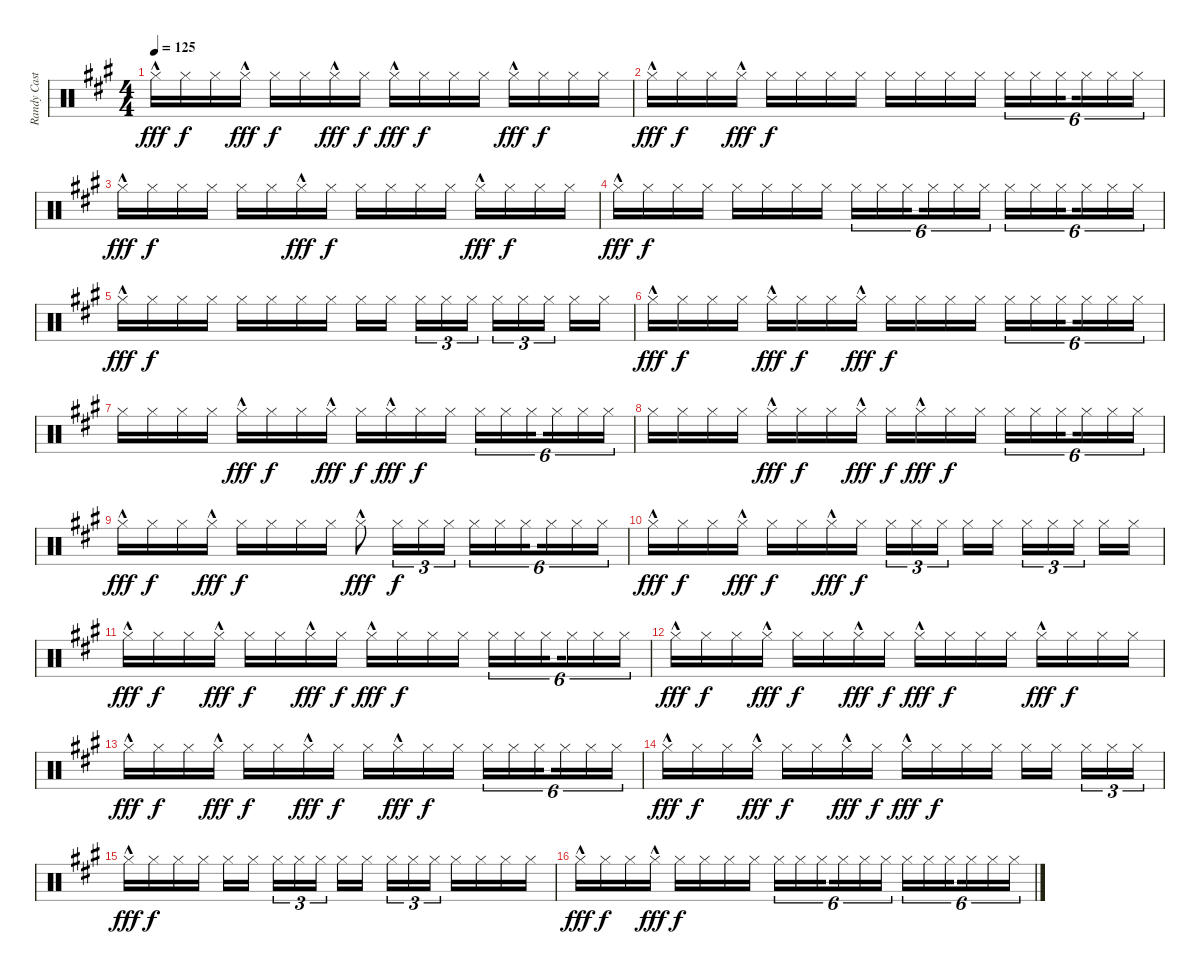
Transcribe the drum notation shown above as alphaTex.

\track ("Randy Castillo - Drums" "Randy Cast") {instrument percussion}
\staff {score}
\articulation defaults
\ts (4 4)
\tempo 125
\clef neutral
\ks a "Hi-Hat (closed)"{hac}.16{dy fff} "Hi-Hat (closed)".16{dy f} "Hi-Hat (closed)".16 "Hi-Hat (closed)"{hac}.16{dy fff} "Hi-Hat (closed)".16{dy f} "Hi-Hat (closed)".16 "Hi-Hat (closed)"{hac}.16{dy fff} "Hi-Hat (closed)".16{dy f} "Hi-Hat (closed)"{hac}.16{dy fff} "Hi-Hat (closed)".16{dy f} "Hi-Hat (closed)".16 "Hi-Hat (closed)".16 "Hi-Hat (closed)"{hac}.16{dy fff} "Hi-Hat (closed)".16{dy f} "Hi-Hat (closed)".16 "Hi-Hat (closed)".16
|
"Hi-Hat (closed)"{hac}.16{dy fff} "Hi-Hat (closed)".16{dy f} "Hi-Hat (closed)".16 "Hi-Hat (closed)"{hac}.16{dy fff} "Hi-Hat (closed)".16{dy f} "Hi-Hat (closed)".16 "Hi-Hat (closed)".16 "Hi-Hat (closed)".16 "Hi-Hat (closed)".16 "Hi-Hat (closed)".16 "Hi-Hat (closed)".16 "Hi-Hat (closed)".16 "Hi-Hat (closed)".16{tu (6 4)} "Hi-Hat (closed)".16{tu (6 4)} "Hi-Hat (closed)".16{tu (6 4) beam splitsecondary} "Hi-Hat (closed)".16{tu (6 4)} "Hi-Hat (closed)".16{tu (6 4)} "Hi-Hat (closed)".16{tu (6 4)} |
"Hi-Hat (closed)"{hac}.16{dy fff} "Hi-Hat (closed)".16{dy f} "Hi-Hat (closed)".16 "Hi-Hat (closed)".16 "Hi-Hat (closed)".16 "Hi-Hat (closed)".16 "Hi-Hat (closed)"{hac}.16{dy fff} "Hi-Hat (closed)".16{dy f} "Hi-Hat (closed)".16 "Hi-Hat (closed)".16 "Hi-Hat (closed)".16 "Hi-Hat (closed)".16 "Hi-Hat (closed)"{hac}.16{dy fff} "Hi-Hat (closed)".16{dy f} "Hi-Hat (closed)".16 "Hi-Hat (closed)".16 |
"Hi-Hat (closed)"{hac}.16{dy fff} "Hi-Hat (closed)".16{dy f} "Hi-Hat (closed)".16 "Hi-Hat (closed)".16 "Hi-Hat (closed)".16 "Hi-Hat (closed)".16 "Hi-Hat (closed)".16 "Hi-Hat (closed)".16 "Hi-Hat (closed)".16{tu (6 4)} "Hi-Hat (closed)".16{tu (6 4)} "Hi-Hat (closed)".16{tu (6 4) beam splitsecondary} "Hi-Hat (closed)".16{tu (6 4)} "Hi-Hat (closed)".16{tu (6 4)} "Hi-Hat (closed)".16{tu (6 4)} "Hi-Hat (closed)".16{tu (6 4)} "Hi-Hat (closed)".16{tu (6 4)} "Hi-Hat (closed)".16{tu (6 4) beam splitsecondary} "Hi-Hat (closed)".16{tu (6 4)} "Hi-Hat (closed)".16{tu (6 4)} "Hi-Hat (closed)".16{tu (6 4)} |
"Hi-Hat (closed)"{hac}.16{dy fff} "Hi-Hat (closed)".16{dy f} "Hi-Hat (closed)".16 "Hi-Hat (closed)".16 "Hi-Hat (closed)".16 "Hi-Hat (closed)".16 "Hi-Hat (closed)".16 "Hi-Hat (closed)".16 "Hi-Hat (closed)".16 "Hi-Hat (closed)".16{beam splitsecondary} "Hi-Hat (closed)".16{tu (3 2)} "Hi-Hat (closed)".16{tu (3 2)} "Hi-Hat (closed)".16{tu (3 2)} "Hi-Hat (closed)".16{tu (3 2)} "Hi-Hat (closed)".16{tu (3 2)} "Hi-Hat (closed)".16{tu (3 2) beam splitsecondary} "Hi-Hat (closed)".16 "Hi-Hat (closed)".16 |
"Hi-Hat (closed)"{hac}.16{dy fff} "Hi-Hat (closed)".16{dy f} "Hi-Hat (closed)".16 "Hi-Hat (closed)".16 "Hi-Hat (closed)"{hac}.16{dy fff} "Hi-Hat (closed)".16{dy f} "Hi-Hat (closed)".16 "Hi-Hat (closed)"{hac}.16{dy fff} "Hi-Hat (closed)".16{dy f} "Hi-Hat (closed)".16 "Hi-Hat (closed)".16 "Hi-Hat (closed)".16 "Hi-Hat (closed)".16{tu (6 4)} "Hi-Hat (closed)".16{tu (6 4)} "Hi-Hat (closed)".16{tu (6 4) beam splitsecondary} "Hi-Hat (closed)".16{tu (6 4)} "Hi-Hat (closed)".16{tu (6 4)} "Hi-Hat (closed)".16{tu (6 4)} |
"Hi-Hat (closed)".16 "Hi-Hat (closed)".16 "Hi-Hat (closed)".16 "Hi-Hat (closed)".16 "Hi-Hat (closed)"{hac}.16{dy fff} "Hi-Hat (closed)".16{dy f} "Hi-Hat (closed)".16 "Hi-Hat (closed)"{hac}.16{dy fff} "Hi-Hat (closed)".16{dy f} "Hi-Hat (closed)"{hac}.16{dy fff} "Hi-Hat (closed)".16{dy f} "Hi-Hat (closed)".16 "Hi-Hat (closed)".16{tu (6 4)} "Hi-Hat (closed)".16{tu (6 4)} "Hi-Hat (closed)".16{tu (6 4) beam splitsecondary} "Hi-Hat (closed)".16{tu (6 4)} "Hi-Hat (closed)".16{tu (6 4)} "Hi-Hat (closed)".16{tu (6 4)} |
"Hi-Hat (closed)".16 "Hi-Hat (closed)".16 "Hi-Hat (closed)".16 "Hi-Hat (closed)".16 "Hi-Hat (closed)"{hac}.16{dy fff} "Hi-Hat (closed)".16{dy f} "Hi-Hat (closed)".16 "Hi-Hat (closed)"{hac}.16{dy fff} "Hi-Hat (closed)".16{dy f} "Hi-Hat (closed)"{hac}.16{dy fff} "Hi-Hat (closed)".16{dy f} "Hi-Hat (closed)".16 "Hi-Hat (closed)".16{tu (6 4)} "Hi-Hat (closed)".16{tu (6 4)} "Hi-Hat (closed)".16{tu (6 4) beam splitsecondary} "Hi-Hat (closed)".16{tu (6 4)} "Hi-Hat (closed)".16{tu (6 4)} "Hi-Hat (closed)".16{tu (6 4)} |
"Hi-Hat (closed)"{hac}.16{dy fff} "Hi-Hat (closed)".16{dy f} "Hi-Hat (closed)".16 "Hi-Hat (closed)"{hac}.16{dy fff} "Hi-Hat (closed)".16{dy f} "Hi-Hat (closed)".16 "Hi-Hat (closed)".16 "Hi-Hat (closed)".16 "Hi-Hat (closed)"{hac}.8{dy fff} "Hi-Hat (closed)".16{tu (3 2) dy f} "Hi-Hat (closed)".16{tu (3 2)} "Hi-Hat (closed)".16{tu (3 2)} "Hi-Hat (closed)".16{tu (6 4)} "Hi-Hat (closed)".16{tu (6 4)} "Hi-Hat (closed)".16{tu (6 4) beam splitsecondary} "Hi-Hat (closed)".16{tu (6 4)} "Hi-Hat (closed)".16{tu (6 4)} "Hi-Hat (closed)".16{tu (6 4)} |
"Hi-Hat (closed)"{hac}.16{dy fff} "Hi-Hat (closed)".16{dy f} "Hi-Hat (closed)".16 "Hi-Hat (closed)"{hac}.16{dy fff} "Hi-Hat (closed)".16{dy f} "Hi-Hat (closed)".16 "Hi-Hat (closed)"{hac}.16{dy fff} "Hi-Hat (closed)".16{dy f} "Hi-Hat (closed)".16{tu (3 2)} "Hi-Hat (closed)".16{tu (3 2)} "Hi-Hat (closed)".16{tu (3 2) beam splitsecondary} "Hi-Hat (closed)".16 "Hi-Hat (closed)".16 "Hi-Hat (closed)".16{tu (3 2)} "Hi-Hat (closed)".16{tu (3 2)} "Hi-Hat (closed)".16{tu (3 2) beam splitsecondary} "Hi-Hat (closed)".16 "Hi-Hat (closed)".16 |
"Hi-Hat (closed)"{hac}.16{dy fff} "Hi-Hat (closed)".16{dy f} "Hi-Hat (closed)".16 "Hi-Hat (closed)"{hac}.16{dy fff} "Hi-Hat (closed)".16{dy f} "Hi-Hat (closed)".16 "Hi-Hat (closed)"{hac}.16{dy fff} "Hi-Hat (closed)".16{dy f} "Hi-Hat (closed)"{hac}.16{dy fff} "Hi-Hat (closed)".16{dy f} "Hi-Hat (closed)".16 "Hi-Hat (closed)".16 "Hi-Hat (closed)".16{tu (6 4)} "Hi-Hat (closed)".16{tu (6 4)} "Hi-Hat (closed)".16{tu (6 4) beam splitsecondary} "Hi-Hat (closed)".16{tu (6 4)} "Hi-Hat (closed)".16{tu (6 4)} "Hi-Hat (closed)".16{tu (6 4)} |
"Hi-Hat (closed)"{hac}.16{dy fff} "Hi-Hat (closed)".16{dy f} "Hi-Hat (closed)".16 "Hi-Hat (closed)"{hac}.16{dy fff} "Hi-Hat (closed)".16{dy f} "Hi-Hat (closed)".16 "Hi-Hat (closed)"{hac}.16{dy fff} "Hi-Hat (closed)".16{dy f} "Hi-Hat (closed)"{hac}.16{dy fff} "Hi-Hat (closed)".16{dy f} "Hi-Hat (closed)".16 "Hi-Hat (closed)".16 "Hi-Hat (closed)"{hac}.16{dy fff} "Hi-Hat (closed)".16{dy f} "Hi-Hat (closed)".16 "Hi-Hat (closed)".16 |
"Hi-Hat (closed)"{hac}.16{dy fff} "Hi-Hat (closed)".16{dy f} "Hi-Hat (closed)".16 "Hi-Hat (closed)"{hac}.16{dy fff} "Hi-Hat (closed)".16{dy f} "Hi-Hat (closed)".16 "Hi-Hat (closed)"{hac}.16{dy fff} "Hi-Hat (closed)".16{dy f} "Hi-Hat (closed)".16 "Hi-Hat (closed)"{hac}.16{dy fff} "Hi-Hat (closed)".16{dy f} "Hi-Hat (closed)".16 "Hi-Hat (closed)".16{tu (6 4)} "Hi-Hat (closed)".16{tu (6 4)} "Hi-Hat (closed)".16{tu (6 4) beam splitsecondary} "Hi-Hat (closed)".16{tu (6 4)} "Hi-Hat (closed)".16{tu (6 4)} "Hi-Hat (closed)".16{tu (6 4)} |
"Hi-Hat (closed)"{hac}.16{dy fff} "Hi-Hat (closed)".16{dy f} "Hi-Hat (closed)".16 "Hi-Hat (closed)"{hac}.16{dy fff} "Hi-Hat (closed)".16{dy f} "Hi-Hat (closed)".16 "Hi-Hat (closed)"{hac}.16{dy fff} "Hi-Hat (closed)".16{dy f} "Hi-Hat (closed)"{hac}.16{dy fff} "Hi-Hat (closed)".16{dy f} "Hi-Hat (closed)".16 "Hi-Hat (closed)".16 "Hi-Hat (closed)".16 "Hi-Hat (closed)".16{beam splitsecondary} "Hi-Hat (closed)".16{tu (3 2)} "Hi-Hat (closed)".16{tu (3 2)} "Hi-Hat (closed)".16{tu (3 2)} |
"Hi-Hat (closed)"{hac}.16{dy fff} "Hi-Hat (closed)".16{dy f} "Hi-Hat (closed)".16 "Hi-Hat (closed)".16 "Hi-Hat (closed)".16 "Hi-Hat (closed)".16{beam splitsecondary} "Hi-Hat (closed)".16{tu (3 2)} "Hi-Hat (closed)".16{tu (3 2)} "Hi-Hat (closed)".16{tu (3 2)} "Hi-Hat (closed)".16 "Hi-Hat (closed)".16{beam splitsecondary} "Hi-Hat (closed)".16{tu (3 2)} "Hi-Hat (closed)".16{tu (3 2)} "Hi-Hat (closed)".16{tu (3 2)} "Hi-Hat (closed)".16 "Hi-Hat (closed)".16 "Hi-Hat (closed)".16 "Hi-Hat (closed)".16 |
"Hi-Hat (closed)"{hac}.16{dy fff} "Hi-Hat (closed)".16{dy f} "Hi-Hat (closed)".16 "Hi-Hat (closed)"{hac}.16{dy fff} "Hi-Hat (closed)".16{dy f} "Hi-Hat (closed)".16 "Hi-Hat (closed)".16 "Hi-Hat (closed)".16 "Hi-Hat (closed)".16{tu (6 4)} "Hi-Hat (closed)".16{tu (6 4)} "Hi-Hat (closed)".16{tu (6 4) beam splitsecondary} "Hi-Hat (closed)".16{tu (6 4)} "Hi-Hat (closed)".16{tu (6 4)} "Hi-Hat (closed)".16{tu (6 4)} "Hi-Hat (closed)".16{tu (6 4)} "Hi-Hat (closed)".16{tu (6 4)} "Hi-Hat (closed)".16{tu (6 4) beam splitsecondary} "Hi-Hat (closed)".16{tu (6 4)} "Hi-Hat (closed)".16{tu (6 4)} "Hi-Hat (closed)".16{tu (6 4)}
